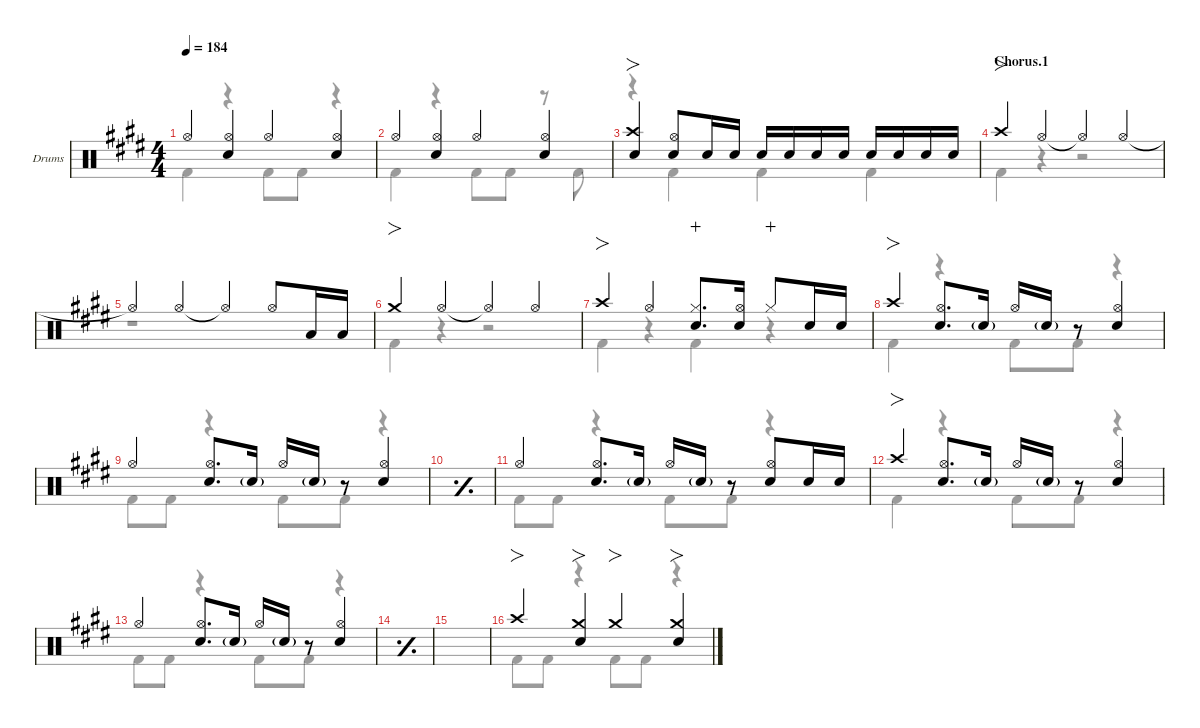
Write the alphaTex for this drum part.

\defaultSystemsLayout 4
\hideDynamics
\bracketExtendMode nobrackets
\firstSystemTrackNameOrientation horizontal
\track ("Drums" "Drums") {defaultSystemsLayout 4 instrument percussion}
\staff {score}
\articulation defaults
\voice
\ts (4 4)
\tempo 184
\clef neutral
\ks e "Hi-Hat (open)"{acc forcenatural}.4{dy f}
("Hi-Hat (open)"{acc forcenatural} "Snare (hit) 2"{acc forcenatural}).4 "Hi-Hat (open)"{acc forcenatural}.4 ("Hi-Hat (open)"{acc forcenatural} "Snare (hit) 2"{acc forcenatural}).4 |
"Hi-Hat (open)"{acc forcenatural}.4 ("Hi-Hat (open)"{acc forcenatural} "Snare (hit) 2"{acc forcenatural}).4 "Hi-Hat (open)"{acc forcenatural}.4 ("Hi-Hat (open)"{acc forcenatural} "Snare (hit) 2"{acc forcenatural}).4 |
("Crash high (hit)"{acc forcenatural} "Snare (hit) 2"{acc forcenatural}).4{fo} ("Snare (hit) 2"{acc forcenatural} "Hi-Hat (open)"{acc forcenatural}).8 "Snare (hit) 2"{acc forcenatural}.16 "Snare (hit) 2"{acc forcenatural}.16{dy mf} "Snare (hit) 2"{acc forcenatural}.16{dy f} "Snare (hit) 2"{acc forcenatural}.16{dy mf} "Snare (hit) 2"{acc forcenatural}.16{dy f} "Snare (hit) 2"{acc forcenatural}.16{dy mf beam split} "Snare (hit) 2"{acc forcenatural}.16{dy f} "Snare (hit) 2"{acc forcenatural}.16{dy mf} "Snare (hit) 2"{acc forcenatural}.16{dy f} "Snare (hit) 2"{acc forcenatural}.16{dy mf} |
\section ("" "Chorus.1")
"Crash high (hit)"{acc forcenatural}.4{fo dy f} "Hi-Hat (open)"{acc forcenatural}.4 "Hi-Hat (open)"{t acc forcenatural}.4 "Hi-Hat (open)"{acc forcenatural}.4 |
"Hi-Hat (open)"{t acc forcenatural}.4 "Hi-Hat (open)"{acc forcenatural}.4 "Hi-Hat (open)"{t acc forcenatural}.4 "Hi-Hat (open)"{acc forcenatural}.8 "Low Tom (hit)"{acc forcenatural}.16 "Low Tom (hit)"{acc forcenatural}.16 |
"Crash medium (hit)"{acc forcenatural}.4{fo} "Hi-Hat (open)"{acc forcenatural}.4 "Hi-Hat (open)"{t acc forcenatural}.4 "Hi-Hat (open)"{acc forcenatural}.4 |
"Crash high (hit)"{acc forcenatural}.4{fo} "Hi-Hat (open)"{acc forcenatural}.4 ("Hi-Hat (closed)"{acc forcenatural} "Snare (hit) 2"{acc forcenatural}).8{d wahc} ("Hi-Hat (open)"{acc forcenatural} "Snare (hit) 2"{acc forcenatural}).16{beam split} "Hi-Hat (closed)"{acc forcenatural}.8{dy mp wahc} "Snare (hit) 2"{acc forcenatural}.16{dy f} "Snare (hit) 2"{acc forcenatural}.16{dy mf} |
"Crash high (hit)"{acc forcenatural}.4{fo dy f} ("Hi-Hat (open)"{acc forcenatural} "Snare (hit) 2"{acc forcenatural}).8{d} "Snare (hit) 2"{g acc forcenatural}.16{dy mf} "Hi-Hat (open)"{acc forcenatural}.16{dy f} "Snare (hit) 2"{g acc forcenatural}.16{dy mf beam split} r.8 ("Hi-Hat (open)"{acc forcenatural} "Snare (hit) 2"{acc forcenatural}).4{dy f} |
"Hi-Hat (open)"{acc forcenatural}.4 ("Hi-Hat (open)"{acc forcenatural} "Snare (hit) 2"{acc forcenatural}).8{d} "Snare (hit) 2"{g acc forcenatural}.16{dy mf} "Hi-Hat (open)"{acc forcenatural}.16{dy f} "Snare (hit) 2"{g acc forcenatural}.16{dy mf beam split} r.8 ("Hi-Hat (open)"{acc forcenatural} "Snare (hit) 2"{acc forcenatural}).4{dy f} |
\simile simple
|
\simile none "Hi-Hat (open)"{acc forcenatural}.4
("Hi-Hat (open)"{acc forcenatural} "Snare (hit) 2"{acc forcenatural}).8{d} "Snare (hit) 2"{g acc forcenatural}.16{dy mf} "Hi-Hat (open)"{acc forcenatural}.16{dy f} "Snare (hit) 2"{g acc forcenatural}.16{dy mf beam split} r.8 ("Hi-Hat (open)"{acc forcenatural} "Snare (hit) 2"{acc forcenatural}).8{dy f} "Snare (hit) 2"{acc forcenatural}.16 "Snare (hit) 2"{acc forcenatural}.16{dy mf} |
"Crash high (hit)"{acc forcenatural}.4{fo dy f} ("Hi-Hat (open)"{acc forcenatural} "Snare (hit) 2"{acc forcenatural}).8{d} "Snare (hit) 2"{g acc forcenatural}.16{dy mf} "Hi-Hat (open)"{acc forcenatural}.16{dy f} "Snare (hit) 2"{g acc forcenatural}.16{dy mf beam split} r.8 ("Hi-Hat (open)"{acc forcenatural} "Snare (hit) 2"{acc forcenatural}).4{dy f} |
"Hi-Hat (open)"{acc forcenatural}.4 ("Hi-Hat (open)"{acc forcenatural} "Snare (hit) 2"{acc forcenatural}).8{d} "Snare (hit) 2"{g acc forcenatural}.16{dy mf} "Hi-Hat (open)"{acc forcenatural}.16{dy f} "Snare (hit) 2"{g acc forcenatural}.16{dy mf beam split} r.8 ("Hi-Hat (open)"{acc forcenatural} "Snare (hit) 2"{acc forcenatural}).4{dy f} |
\simile simple
|
|
\simile none "Crash high (hit)"{acc forcenatural}.4{fo}
("Crash medium (hit)"{acc forcenatural} "Snare (hit) 2"{acc forcenatural}).4{fo} "Crash medium (hit)"{acc forcenatural}.4{fo} ("Crash medium (hit)"{acc forcenatural} "Snare (hit) 2"{acc forcenatural}).4{fo}
\voice
\clef neutral
\ottava regular
\simile none
\ks e "Kick (hit) 2"{acc forcenatural}.4{dy f}
r.4 "Kick (hit) 2"{acc forcenatural}.8 "Kick (hit) 2"{acc forcenatural}.8 r.4 |
"Kick (hit) 2"{acc forcenatural}.4 r.4 "Kick (hit) 2"{acc forcenatural}.8 "Kick (hit) 2"{acc forcenatural}.8 r.8 "Kick (hit) 2"{acc forcenatural}.8 |
r.4 "Kick (hit) 2"{acc forcenatural}.4 "Kick (hit) 2"{acc forcenatural}.4 "Kick (hit) 2"{acc forcenatural}.4 |
"Kick (hit) 2"{acc forcenatural}.4 r.4 r.2 |
r.1 |
"Kick (hit) 2"{acc forcenatural}.4 r.4 r.2 |
"Kick (hit) 2"{acc forcenatural}.4 r.4 "Kick (hit) 2"{acc forcenatural}.4 r.4 |
"Kick (hit) 2"{acc forcenatural}.4 r.4 "Kick (hit) 2"{acc forcenatural}.8 "Kick (hit) 2"{acc forcenatural}.8 r.4 |
"Kick (hit) 2"{acc forcenatural}.8 "Kick (hit) 2"{acc forcenatural}.8 r.4 "Kick (hit) 2"{acc forcenatural}.8 "Kick (hit) 2"{acc forcenatural}.8 r.4 |
\simile simple
|
\simile none "Kick (hit) 2"{acc forcenatural}.8 "Kick (hit) 2"{acc forcenatural}.8
r.4 "Kick (hit) 2"{acc forcenatural}.8 "Kick (hit) 2"{acc forcenatural}.8 r.4 |
"Kick (hit) 2"{acc forcenatural}.4 r.4 "Kick (hit) 2"{acc forcenatural}.8 "Kick (hit) 2"{acc forcenatural}.8 r.4 |
"Kick (hit) 2"{acc forcenatural}.8 "Kick (hit) 2"{acc forcenatural}.8 r.4 "Kick (hit) 2"{acc forcenatural}.8 "Kick (hit) 2"{acc forcenatural}.8 r.4 |
\simile simple
|
|
\simile none "Kick (hit) 2"{acc forcenatural}.8 "Kick (hit) 2"{acc forcenatural}.8
r.4 "Kick (hit) 2"{acc forcenatural}.8 "Kick (hit) 2"{acc forcenatural}.8 r.4
